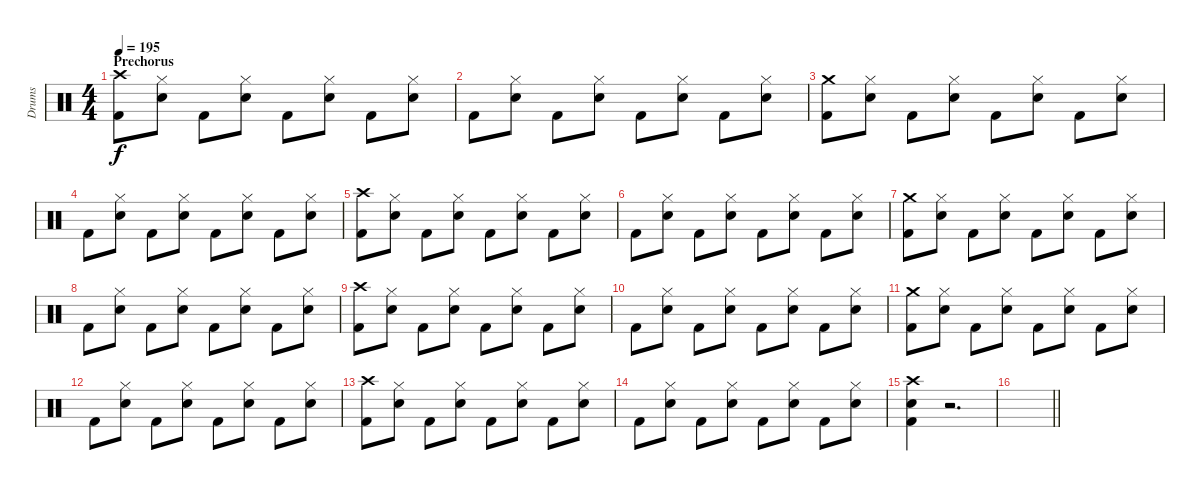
\track ("Drums" "Drums") {instrument percussion}
\staff {score}
\articulation defaults
\ts (4 4)
\section ("" "Prechorus")
\tempo 195
\clef neutral
\ks c
("Crash high (hit)" "Kick (hit) 2").8{dy f} ("Hi-Hat (closed)" "Snare (hit) 2").8 "Kick (hit) 2".8 ("Hi-Hat (closed)" "Snare (hit) 2").8 "Kick (hit) 2".8 ("Hi-Hat (closed)" "Snare (hit) 2").8 "Kick (hit) 2".8 ("Hi-Hat (closed)" "Snare (hit) 2").8 |
"Kick (hit) 2".8 ("Hi-Hat (closed)" "Snare (hit) 2").8 "Kick (hit) 2".8 ("Hi-Hat (closed)" "Snare (hit) 2").8 "Kick (hit) 2".8 ("Hi-Hat (closed)" "Snare (hit) 2").8 "Kick (hit) 2".8 ("Hi-Hat (closed)" "Snare (hit) 2").8 |
("Crash medium (hit)" "Kick (hit) 2").8 ("Hi-Hat (closed)" "Snare (hit) 2").8 "Kick (hit) 2".8 ("Hi-Hat (closed)" "Snare (hit) 2").8 "Kick (hit) 2".8 ("Hi-Hat (closed)" "Snare (hit) 2").8 "Kick (hit) 2".8 ("Hi-Hat (closed)" "Snare (hit) 2").8 |
"Kick (hit) 2".8 ("Hi-Hat (closed)" "Snare (hit) 2").8 "Kick (hit) 2".8 ("Hi-Hat (closed)" "Snare (hit) 2").8 "Kick (hit) 2".8 ("Hi-Hat (closed)" "Snare (hit) 2").8 "Kick (hit) 2".8 ("Hi-Hat (closed)" "Snare (hit) 2").8 |
("Crash high (hit)" "Kick (hit) 2").8 ("Hi-Hat (closed)" "Snare (hit) 2").8 "Kick (hit) 2".8 ("Hi-Hat (closed)" "Snare (hit) 2").8 "Kick (hit) 2".8 ("Hi-Hat (closed)" "Snare (hit) 2").8 "Kick (hit) 2".8 ("Hi-Hat (closed)" "Snare (hit) 2").8 |
"Kick (hit) 2".8 ("Hi-Hat (closed)" "Snare (hit) 2").8 "Kick (hit) 2".8 ("Hi-Hat (closed)" "Snare (hit) 2").8 "Kick (hit) 2".8 ("Hi-Hat (closed)" "Snare (hit) 2").8 "Kick (hit) 2".8 ("Hi-Hat (closed)" "Snare (hit) 2").8 |
("Crash medium (hit)" "Kick (hit) 2").8 ("Hi-Hat (closed)" "Snare (hit) 2").8 "Kick (hit) 2".8 ("Hi-Hat (closed)" "Snare (hit) 2").8 "Kick (hit) 2".8 ("Hi-Hat (closed)" "Snare (hit) 2").8 "Kick (hit) 2".8 ("Hi-Hat (closed)" "Snare (hit) 2").8 |
"Kick (hit) 2".8 ("Hi-Hat (closed)" "Snare (hit) 2").8 "Kick (hit) 2".8 ("Hi-Hat (closed)" "Snare (hit) 2").8 "Kick (hit) 2".8 ("Hi-Hat (closed)" "Snare (hit) 2").8 "Kick (hit) 2".8 ("Hi-Hat (closed)" "Snare (hit) 2").8 |
("Crash high (hit)" "Kick (hit) 2").8 ("Hi-Hat (closed)" "Snare (hit) 2").8 "Kick (hit) 2".8 ("Hi-Hat (closed)" "Snare (hit) 2").8 "Kick (hit) 2".8 ("Hi-Hat (closed)" "Snare (hit) 2").8 "Kick (hit) 2".8 ("Hi-Hat (closed)" "Snare (hit) 2").8 |
"Kick (hit) 2".8 ("Hi-Hat (closed)" "Snare (hit) 2").8 "Kick (hit) 2".8 ("Hi-Hat (closed)" "Snare (hit) 2").8 "Kick (hit) 2".8 ("Hi-Hat (closed)" "Snare (hit) 2").8 "Kick (hit) 2".8 ("Hi-Hat (closed)" "Snare (hit) 2").8 |
("Crash medium (hit)" "Kick (hit) 2").8 ("Hi-Hat (closed)" "Snare (hit) 2").8 "Kick (hit) 2".8 ("Hi-Hat (closed)" "Snare (hit) 2").8 "Kick (hit) 2".8 ("Hi-Hat (closed)" "Snare (hit) 2").8 "Kick (hit) 2".8 ("Hi-Hat (closed)" "Snare (hit) 2").8 |
"Kick (hit) 2".8 ("Hi-Hat (closed)" "Snare (hit) 2").8 "Kick (hit) 2".8 ("Hi-Hat (closed)" "Snare (hit) 2").8 "Kick (hit) 2".8 ("Hi-Hat (closed)" "Snare (hit) 2").8 "Kick (hit) 2".8 ("Hi-Hat (closed)" "Snare (hit) 2").8 |
("Crash high (hit)" "Kick (hit) 2").8 ("Hi-Hat (closed)" "Snare (hit) 2").8 "Kick (hit) 2".8 ("Hi-Hat (closed)" "Snare (hit) 2").8 "Kick (hit) 2".8 ("Hi-Hat (closed)" "Snare (hit) 2").8 "Kick (hit) 2".8 ("Hi-Hat (closed)" "Snare (hit) 2").8 |
"Kick (hit) 2".8 ("Hi-Hat (closed)" "Snare (hit) 2").8 "Kick (hit) 2".8 ("Hi-Hat (closed)" "Snare (hit) 2").8 "Kick (hit) 2".8 ("Hi-Hat (closed)" "Snare (hit) 2").8 "Kick (hit) 2".8 ("Hi-Hat (closed)" "Snare (hit) 2").8 |
("Crash high (hit)" "Snare (hit) 2" "Kick (hit) 2").4 r.2{d} |
\barLineRight lightlight
